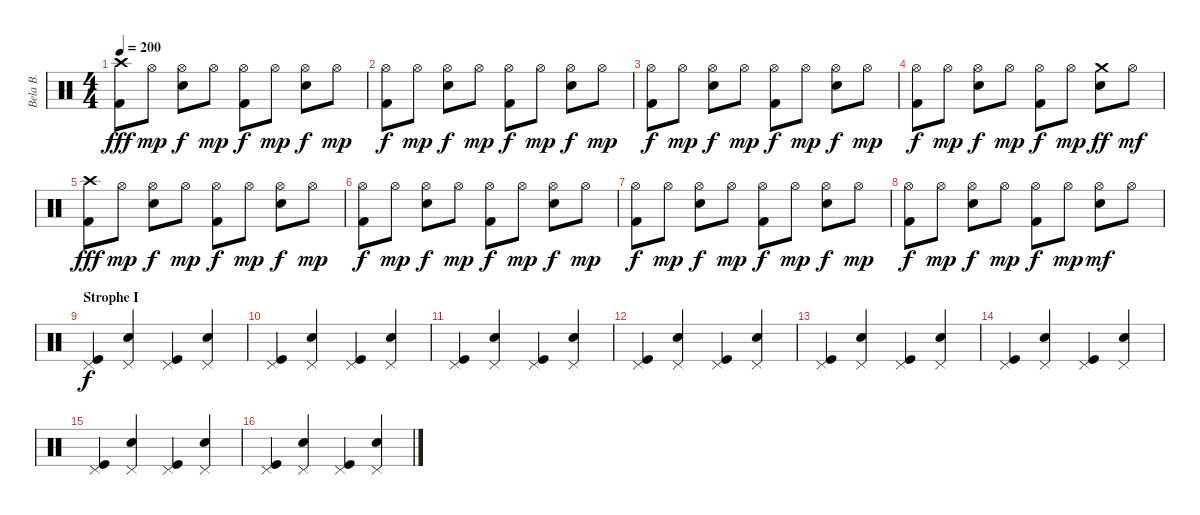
\track ("Bela B. " "Bela B. ") {instrument percussion}
\staff {score}
\articulation defaults
\ts (4 4)
\tempo 200
\clef neutral
\ks c
("Crash high (hit)" "Kick (hit) 2").8{dy fff} "Hi-Hat (open)".8{dy mp} ("Hi-Hat (open)" "Snare (hit) 2").8{dy f} "Hi-Hat (open)".8{dy mp} ("Hi-Hat (open)" "Kick (hit) 2").8{dy f} "Hi-Hat (open)".8{dy mp} ("Hi-Hat (open)" "Snare (hit) 2").8{dy f} "Hi-Hat (open)".8{dy mp} |
("Hi-Hat (open)" "Kick (hit) 2").8{dy f} "Hi-Hat (open)".8{dy mp} ("Hi-Hat (open)" "Snare (hit) 2").8{dy f} "Hi-Hat (open)".8{dy mp} ("Hi-Hat (open)" "Kick (hit) 2").8{dy f} "Hi-Hat (open)".8{dy mp} ("Hi-Hat (open)" "Snare (hit) 2").8{dy f} "Hi-Hat (open)".8{dy mp} |
("Hi-Hat (open)" "Kick (hit) 2").8{dy f} "Hi-Hat (open)".8{dy mp} ("Hi-Hat (open)" "Snare (hit) 2").8{dy f} "Hi-Hat (open)".8{dy mp} ("Hi-Hat (open)" "Kick (hit) 2").8{dy f} "Hi-Hat (open)".8{dy mp} ("Hi-Hat (open)" "Snare (hit) 2").8{dy f} "Hi-Hat (open)".8{dy mp} |
("Hi-Hat (open)" "Kick (hit) 2").8{dy f} "Hi-Hat (open)".8{dy mp} ("Hi-Hat (open)" "Snare (hit) 2").8{dy f} "Hi-Hat (open)".8{dy mp} ("Hi-Hat (open)" "Kick (hit) 2").8{dy f} "Hi-Hat (open)".8{dy mp} ("Crash medium (hit)" "Snare (hit) 2").8{dy ff} "Hi-Hat (open)".8{dy mf} |
("Crash high (hit)" "Kick (hit) 2").8{dy fff} "Hi-Hat (open)".8{dy mp} ("Hi-Hat (open)" "Snare (hit) 2").8{dy f} "Hi-Hat (open)".8{dy mp} ("Hi-Hat (open)" "Kick (hit) 2").8{dy f} "Hi-Hat (open)".8{dy mp} ("Hi-Hat (open)" "Snare (hit) 2").8{dy f} "Hi-Hat (open)".8{dy mp} |
("Hi-Hat (open)" "Kick (hit) 2").8{dy f} "Hi-Hat (open)".8{dy mp} ("Hi-Hat (open)" "Snare (hit) 2").8{dy f} "Hi-Hat (open)".8{dy mp} ("Hi-Hat (open)" "Kick (hit) 2").8{dy f} "Hi-Hat (open)".8{dy mp} ("Hi-Hat (open)" "Snare (hit) 2").8{dy f} "Hi-Hat (open)".8{dy mp} |
("Hi-Hat (open)" "Kick (hit) 2").8{dy f} "Hi-Hat (open)".8{dy mp} ("Hi-Hat (open)" "Snare (hit) 2").8{dy f} "Hi-Hat (open)".8{dy mp} ("Hi-Hat (open)" "Kick (hit) 2").8{dy f} "Hi-Hat (open)".8{dy mp} ("Hi-Hat (open)" "Snare (hit) 2").8{dy f} "Hi-Hat (open)".8{dy mp} |
("Hi-Hat (open)" "Kick (hit) 2").8{dy f} "Hi-Hat (open)".8{dy mp} ("Hi-Hat (open)" "Snare (hit) 2").8{dy f} "Hi-Hat (open)".8{dy mp} ("Hi-Hat (open)" "Kick (hit) 2").8{dy f} "Hi-Hat (open)".8{dy mp} ("Hi-Hat (open)" "Snare (hit) 2").8{dy mf} "Hi-Hat (open)".8 |
\section ("" "Strophe I")
("Pedal Hi-Hat (hit)" "Kick (hit)").4{dy f} ("Pedal Hi-Hat (hit)" "Snare (hit) 2").4 ("Pedal Hi-Hat (hit)" "Kick (hit)").4 ("Pedal Hi-Hat (hit)" "Snare (hit) 2").4 |
("Pedal Hi-Hat (hit)" "Kick (hit)").4 ("Pedal Hi-Hat (hit)" "Snare (hit) 2").4 ("Pedal Hi-Hat (hit)" "Kick (hit)").4 ("Pedal Hi-Hat (hit)" "Snare (hit) 2").4 |
("Pedal Hi-Hat (hit)" "Kick (hit)").4 ("Pedal Hi-Hat (hit)" "Snare (hit) 2").4 ("Pedal Hi-Hat (hit)" "Kick (hit)").4 ("Pedal Hi-Hat (hit)" "Snare (hit) 2").4 |
("Pedal Hi-Hat (hit)" "Kick (hit)").4 ("Pedal Hi-Hat (hit)" "Snare (hit) 2").4 ("Pedal Hi-Hat (hit)" "Kick (hit)").4 ("Pedal Hi-Hat (hit)" "Snare (hit) 2").4 |
("Pedal Hi-Hat (hit)" "Kick (hit)").4 ("Pedal Hi-Hat (hit)" "Snare (hit) 2").4 ("Pedal Hi-Hat (hit)" "Kick (hit)").4 ("Pedal Hi-Hat (hit)" "Snare (hit) 2").4 |
("Pedal Hi-Hat (hit)" "Kick (hit)").4 ("Pedal Hi-Hat (hit)" "Snare (hit) 2").4 ("Pedal Hi-Hat (hit)" "Kick (hit)").4 ("Pedal Hi-Hat (hit)" "Snare (hit) 2").4 |
("Pedal Hi-Hat (hit)" "Kick (hit)").4 ("Pedal Hi-Hat (hit)" "Snare (hit) 2").4 ("Pedal Hi-Hat (hit)" "Kick (hit)").4 ("Pedal Hi-Hat (hit)" "Snare (hit) 2").4 |
("Pedal Hi-Hat (hit)" "Kick (hit)").4 ("Pedal Hi-Hat (hit)" "Snare (hit) 2").4 ("Pedal Hi-Hat (hit)" "Kick (hit)").4 ("Pedal Hi-Hat (hit)" "Snare (hit) 2").4
